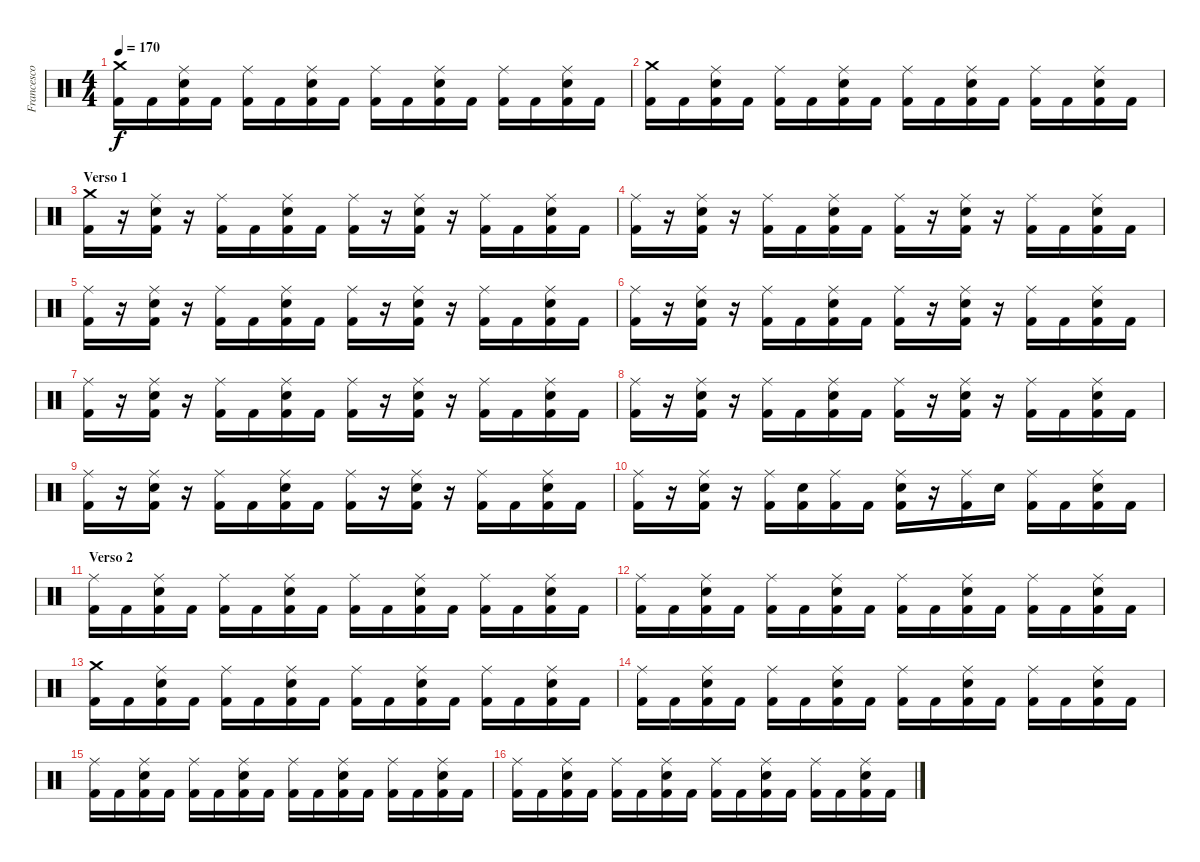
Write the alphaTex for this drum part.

\track ("Francesco Tresa" "Francesco ") {instrument percussion}
\staff {score}
\articulation defaults
\ts (4 4)
\tempo 170
\clef neutral
\ks c
("Crash medium (hit)" "Kick (hit) 2").16{dy f} "Kick (hit) 2".16 ("Ride (middle)" "Kick (hit) 2" "Electric Snare (hit)").16 "Kick (hit) 2".16 ("Ride (middle)" "Kick (hit) 2").16 "Kick (hit) 2".16 ("Ride (middle)" "Kick (hit) 2" "Electric Snare (hit)").16 "Kick (hit) 2".16 ("Ride (middle)" "Kick (hit) 2").16 "Kick (hit) 2".16 ("Ride (middle)" "Kick (hit) 2" "Electric Snare (hit)").16 "Kick (hit) 2".16 ("Ride (middle)" "Kick (hit) 2").16 "Kick (hit) 2".16 ("Ride (middle)" "Kick (hit) 2" "Electric Snare (hit)").16 "Kick (hit) 2".16 |
("Crash medium (hit)" "Kick (hit) 2").16 "Kick (hit) 2".16 ("Ride (middle)" "Kick (hit) 2" "Electric Snare (hit)").16 "Kick (hit) 2".16 ("Ride (middle)" "Kick (hit) 2").16 "Kick (hit) 2".16 ("Ride (middle)" "Kick (hit) 2" "Electric Snare (hit)").16 "Kick (hit) 2".16 ("Ride (middle)" "Kick (hit) 2").16 "Kick (hit) 2".16 ("Ride (middle)" "Kick (hit) 2" "Electric Snare (hit)").16 "Kick (hit) 2".16 ("Ride (middle)" "Kick (hit) 2").16 "Kick (hit) 2".16 ("Ride (middle)" "Kick (hit) 2" "Electric Snare (hit)").16 "Kick (hit) 2".16 |
\section ("" "Verso 1")
("Crash medium (hit)" "Kick (hit) 2").16 r.16 ("Ride (middle)" "Kick (hit) 2" "Electric Snare (hit)").16 r.16 ("Ride (middle)" "Kick (hit) 2").16 "Kick (hit) 2".16 ("Ride (middle)" "Kick (hit) 2" "Electric Snare (hit)").16 "Kick (hit) 2".16 ("Ride (middle)" "Kick (hit) 2").16 r.16 ("Ride (middle)" "Kick (hit) 2" "Electric Snare (hit)").16 r.16 ("Ride (middle)" "Kick (hit) 2").16 "Kick (hit) 2".16 ("Ride (middle)" "Kick (hit) 2" "Electric Snare (hit)").16 "Kick (hit) 2".16 |
("Ride (middle)" "Kick (hit) 2").16 r.16 ("Ride (middle)" "Kick (hit) 2" "Electric Snare (hit)").16 r.16 ("Ride (middle)" "Kick (hit) 2").16 "Kick (hit) 2".16 ("Ride (middle)" "Kick (hit) 2" "Electric Snare (hit)").16 "Kick (hit) 2".16 ("Ride (middle)" "Kick (hit) 2").16 r.16 ("Ride (middle)" "Kick (hit) 2" "Electric Snare (hit)").16 r.16 ("Ride (middle)" "Kick (hit) 2").16 "Kick (hit) 2".16 ("Ride (middle)" "Kick (hit) 2" "Electric Snare (hit)").16 "Kick (hit) 2".16 |
("Ride (middle)" "Kick (hit) 2").16 r.16 ("Ride (middle)" "Kick (hit) 2" "Electric Snare (hit)").16 r.16 ("Ride (middle)" "Kick (hit) 2").16 "Kick (hit) 2".16 ("Ride (middle)" "Kick (hit) 2" "Electric Snare (hit)").16 "Kick (hit) 2".16 ("Ride (middle)" "Kick (hit) 2").16 r.16 ("Ride (middle)" "Kick (hit) 2" "Electric Snare (hit)").16 r.16 ("Ride (middle)" "Kick (hit) 2").16 "Kick (hit) 2".16 ("Ride (middle)" "Kick (hit) 2" "Electric Snare (hit)").16 "Kick (hit) 2".16 |
("Ride (middle)" "Kick (hit) 2").16 r.16 ("Ride (middle)" "Kick (hit) 2" "Electric Snare (hit)").16 r.16 ("Ride (middle)" "Kick (hit) 2").16 "Kick (hit) 2".16 ("Ride (middle)" "Kick (hit) 2" "Electric Snare (hit)").16 "Kick (hit) 2".16 ("Ride (middle)" "Kick (hit) 2").16 r.16 ("Ride (middle)" "Kick (hit) 2" "Electric Snare (hit)").16 r.16 ("Ride (middle)" "Kick (hit) 2").16 "Kick (hit) 2".16 ("Ride (middle)" "Kick (hit) 2" "Electric Snare (hit)").16 "Kick (hit) 2".16 |
("Ride (middle)" "Kick (hit) 2").16 r.16 ("Ride (middle)" "Kick (hit) 2" "Electric Snare (hit)").16 r.16 ("Ride (middle)" "Kick (hit) 2").16 "Kick (hit) 2".16 ("Ride (middle)" "Kick (hit) 2" "Electric Snare (hit)").16 "Kick (hit) 2".16 ("Ride (middle)" "Kick (hit) 2").16 r.16 ("Ride (middle)" "Kick (hit) 2" "Electric Snare (hit)").16 r.16 ("Ride (middle)" "Kick (hit) 2").16 "Kick (hit) 2".16 ("Ride (middle)" "Kick (hit) 2" "Electric Snare (hit)").16 "Kick (hit) 2".16 |
("Ride (middle)" "Kick (hit) 2").16 r.16 ("Ride (middle)" "Kick (hit) 2" "Electric Snare (hit)").16 r.16 ("Ride (middle)" "Kick (hit) 2").16 "Kick (hit) 2".16 ("Ride (middle)" "Kick (hit) 2" "Electric Snare (hit)").16 "Kick (hit) 2".16 ("Ride (middle)" "Kick (hit) 2").16 r.16 ("Ride (middle)" "Kick (hit) 2" "Electric Snare (hit)").16 r.16 ("Ride (middle)" "Kick (hit) 2").16 "Kick (hit) 2".16 ("Ride (middle)" "Kick (hit) 2" "Electric Snare (hit)").16 "Kick (hit) 2".16 |
("Ride (middle)" "Kick (hit) 2").16 r.16 ("Ride (middle)" "Kick (hit) 2" "Electric Snare (hit)").16 r.16 ("Ride (middle)" "Kick (hit) 2").16 "Kick (hit) 2".16 ("Ride (middle)" "Kick (hit) 2" "Electric Snare (hit)").16 "Kick (hit) 2".16 ("Ride (middle)" "Kick (hit) 2").16 r.16 ("Ride (middle)" "Kick (hit) 2" "Electric Snare (hit)").16 r.16 ("Ride (middle)" "Kick (hit) 2").16 "Kick (hit) 2".16 ("Ride (middle)" "Kick (hit) 2" "Electric Snare (hit)").16 "Kick (hit) 2".16 |
("Ride (middle)" "Kick (hit) 2").16 r.16 ("Ride (middle)" "Kick (hit) 2" "Electric Snare (hit)").16 r.16 ("Ride (middle)" "Kick (hit) 2").16 ("Kick (hit) 2" "Electric Snare (hit)").16 ("Ride (middle)" "Kick (hit) 2").16 "Kick (hit) 2".16 ("Ride (middle)" "Kick (hit) 2" "Electric Snare (hit)").16 r.16 ("Ride (middle)" "Kick (hit) 2").16 "Electric Snare (hit)".16 ("Ride (middle)" "Kick (hit) 2").16 "Kick (hit) 2".16 ("Ride (middle)" "Kick (hit) 2" "Electric Snare (hit)").16 "Kick (hit) 2".16 |
\section ("" "Verso 2")
("Ride (middle)" "Kick (hit) 2").16 "Kick (hit) 2".16 ("Ride (middle)" "Kick (hit) 2" "Electric Snare (hit)").16 "Kick (hit) 2".16 ("Ride (middle)" "Kick (hit) 2").16 "Kick (hit) 2".16 ("Ride (middle)" "Kick (hit) 2" "Electric Snare (hit)").16 "Kick (hit) 2".16 ("Ride (middle)" "Kick (hit) 2").16 "Kick (hit) 2".16 ("Ride (middle)" "Kick (hit) 2" "Electric Snare (hit)").16 "Kick (hit) 2".16 ("Ride (middle)" "Kick (hit) 2").16 "Kick (hit) 2".16 ("Ride (middle)" "Kick (hit) 2" "Electric Snare (hit)").16 "Kick (hit) 2".16 |
("Ride (middle)" "Kick (hit) 2").16 "Kick (hit) 2".16 ("Ride (middle)" "Kick (hit) 2" "Electric Snare (hit)").16 "Kick (hit) 2".16 ("Ride (middle)" "Kick (hit) 2").16 "Kick (hit) 2".16 ("Ride (middle)" "Kick (hit) 2" "Electric Snare (hit)").16 "Kick (hit) 2".16 ("Ride (middle)" "Kick (hit) 2").16 "Kick (hit) 2".16 ("Ride (middle)" "Kick (hit) 2" "Electric Snare (hit)").16 "Kick (hit) 2".16 ("Ride (middle)" "Kick (hit) 2").16 "Kick (hit) 2".16 ("Ride (middle)" "Kick (hit) 2" "Electric Snare (hit)").16 "Kick (hit) 2".16 |
("Crash medium (hit)" "Kick (hit) 2").16 "Kick (hit) 2".16 ("Ride (middle)" "Kick (hit) 2" "Electric Snare (hit)").16 "Kick (hit) 2".16 ("Ride (middle)" "Kick (hit) 2").16 "Kick (hit) 2".16 ("Ride (middle)" "Kick (hit) 2" "Electric Snare (hit)").16 "Kick (hit) 2".16 ("Ride (middle)" "Kick (hit) 2").16 "Kick (hit) 2".16 ("Ride (middle)" "Kick (hit) 2" "Electric Snare (hit)").16 "Kick (hit) 2".16 ("Ride (middle)" "Kick (hit) 2").16 "Kick (hit) 2".16 ("Ride (middle)" "Kick (hit) 2" "Electric Snare (hit)").16 "Kick (hit) 2".16 |
("Ride (middle)" "Kick (hit) 2").16 "Kick (hit) 2".16 ("Ride (middle)" "Kick (hit) 2" "Electric Snare (hit)").16 "Kick (hit) 2".16 ("Ride (middle)" "Kick (hit) 2").16 "Kick (hit) 2".16 ("Ride (middle)" "Kick (hit) 2" "Electric Snare (hit)").16 "Kick (hit) 2".16 ("Ride (middle)" "Kick (hit) 2").16 "Kick (hit) 2".16 ("Ride (middle)" "Kick (hit) 2" "Electric Snare (hit)").16 "Kick (hit) 2".16 ("Ride (middle)" "Kick (hit) 2").16 "Kick (hit) 2".16 ("Ride (middle)" "Kick (hit) 2" "Electric Snare (hit)").16 "Kick (hit) 2".16 |
("Ride (middle)" "Kick (hit) 2").16 "Kick (hit) 2".16 ("Ride (middle)" "Kick (hit) 2" "Electric Snare (hit)").16 "Kick (hit) 2".16 ("Ride (middle)" "Kick (hit) 2").16 "Kick (hit) 2".16 ("Ride (middle)" "Kick (hit) 2" "Electric Snare (hit)").16 "Kick (hit) 2".16 ("Ride (middle)" "Kick (hit) 2").16 "Kick (hit) 2".16 ("Ride (middle)" "Kick (hit) 2" "Electric Snare (hit)").16 "Kick (hit) 2".16 ("Ride (middle)" "Kick (hit) 2").16 "Kick (hit) 2".16 ("Ride (middle)" "Kick (hit) 2" "Electric Snare (hit)").16 "Kick (hit) 2".16 |
("Ride (middle)" "Kick (hit) 2").16 "Kick (hit) 2".16 ("Ride (middle)" "Kick (hit) 2" "Electric Snare (hit)").16 "Kick (hit) 2".16 ("Ride (middle)" "Kick (hit) 2").16 "Kick (hit) 2".16 ("Ride (middle)" "Kick (hit) 2" "Electric Snare (hit)").16 "Kick (hit) 2".16 ("Ride (middle)" "Kick (hit) 2").16 "Kick (hit) 2".16 ("Ride (middle)" "Kick (hit) 2" "Electric Snare (hit)").16 "Kick (hit) 2".16 ("Ride (middle)" "Kick (hit) 2").16 "Kick (hit) 2".16 ("Ride (middle)" "Kick (hit) 2" "Electric Snare (hit)").16 "Kick (hit) 2".16
